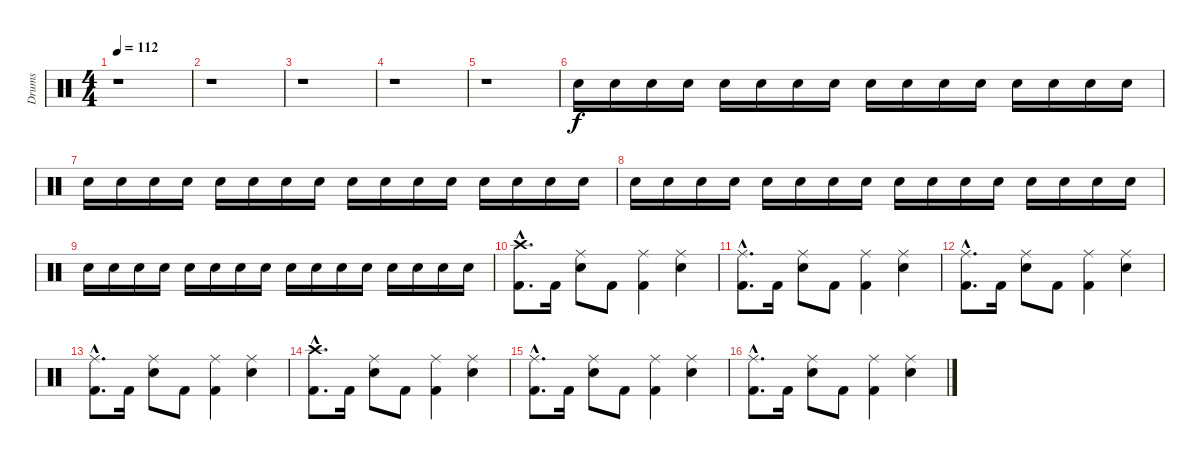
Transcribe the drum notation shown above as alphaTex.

\track ("Drums" "Drums") {instrument percussion}
\staff {score}
\articulation defaults
\ts (4 4)
\tempo 112
\clef neutral
\ks c
r.1{dy f} |
r.1 |
r.1 |
r.1 |
r.1 |
"Electric Snare (hit)".16 "Electric Snare (hit)".16 "Electric Snare (hit)".16 "Electric Snare (hit)".16 "Electric Snare (hit)".16 "Electric Snare (hit)".16 "Electric Snare (hit)".16 "Electric Snare (hit)".16 "Electric Snare (hit)".16 "Electric Snare (hit)".16 "Electric Snare (hit)".16 "Electric Snare (hit)".16 "Electric Snare (hit)".16 "Electric Snare (hit)".16 "Electric Snare (hit)".16 "Electric Snare (hit)".16 |
"Electric Snare (hit)".16 "Electric Snare (hit)".16 "Electric Snare (hit)".16 "Electric Snare (hit)".16 "Electric Snare (hit)".16 "Electric Snare (hit)".16 "Electric Snare (hit)".16 "Electric Snare (hit)".16 "Electric Snare (hit)".16 "Electric Snare (hit)".16 "Electric Snare (hit)".16 "Electric Snare (hit)".16 "Electric Snare (hit)".16 "Electric Snare (hit)".16 "Electric Snare (hit)".16 "Electric Snare (hit)".16 |
"Electric Snare (hit)".16 "Electric Snare (hit)".16 "Electric Snare (hit)".16 "Electric Snare (hit)".16 "Electric Snare (hit)".16 "Electric Snare (hit)".16 "Electric Snare (hit)".16 "Electric Snare (hit)".16 "Electric Snare (hit)".16 "Electric Snare (hit)".16 "Electric Snare (hit)".16 "Electric Snare (hit)".16 "Electric Snare (hit)".16 "Electric Snare (hit)".16 "Electric Snare (hit)".16 "Electric Snare (hit)".16 |
"Electric Snare (hit)".16 "Electric Snare (hit)".16 "Electric Snare (hit)".16 "Electric Snare (hit)".16 "Electric Snare (hit)".16 "Electric Snare (hit)".16 "Electric Snare (hit)".16 "Electric Snare (hit)".16 "Electric Snare (hit)".16 "Electric Snare (hit)".16 "Electric Snare (hit)".16 "Electric Snare (hit)".16 "Electric Snare (hit)".16 "Electric Snare (hit)".16 "Electric Snare (hit)".16 "Electric Snare (hit)".16 |
("Crash high (hit)"{hac} "Kick (hit) 2"{hac}).8{d} "Kick (hit) 2".16 ("Ride (middle)" "Electric Snare (hit)").8 "Kick (hit) 2".8 ("Ride (middle)" "Kick (hit) 2").4 ("Ride (middle)" "Electric Snare (hit)").4 |
("Ride (middle)"{hac} "Kick (hit) 2"{hac}).8{d} "Kick (hit) 2".16 ("Ride (middle)" "Electric Snare (hit)").8 "Kick (hit) 2".8 ("Ride (middle)" "Kick (hit) 2").4 ("Ride (middle)" "Electric Snare (hit)").4 |
("Ride (middle)"{hac} "Kick (hit) 2"{hac}).8{d} "Kick (hit) 2".16 ("Ride (middle)" "Electric Snare (hit)").8 "Kick (hit) 2".8 ("Ride (middle)" "Kick (hit) 2").4 ("Ride (middle)" "Electric Snare (hit)").4 |
("Ride (middle)"{hac} "Kick (hit) 2"{hac}).8{d} "Kick (hit) 2".16 ("Ride (middle)" "Electric Snare (hit)").8 "Kick (hit) 2".8 ("Ride (middle)" "Kick (hit) 2").4 ("Ride (middle)" "Electric Snare (hit)").4 |
("Crash high (hit)"{hac} "Kick (hit) 2"{hac}).8{d} "Kick (hit) 2".16 ("Ride (middle)" "Electric Snare (hit)").8 "Kick (hit) 2".8 ("Ride (middle)" "Kick (hit) 2").4 ("Ride (middle)" "Electric Snare (hit)").4 |
("Ride (middle)"{hac} "Kick (hit) 2"{hac}).8{d} "Kick (hit) 2".16 ("Ride (middle)" "Electric Snare (hit)").8 "Kick (hit) 2".8 ("Ride (middle)" "Kick (hit) 2").4 ("Ride (middle)" "Electric Snare (hit)").4 |
("Ride (middle)"{hac} "Kick (hit) 2"{hac}).8{d} "Kick (hit) 2".16 ("Ride (middle)" "Electric Snare (hit)").8 "Kick (hit) 2".8 ("Ride (middle)" "Kick (hit) 2").4 ("Ride (middle)" "Electric Snare (hit)").4
